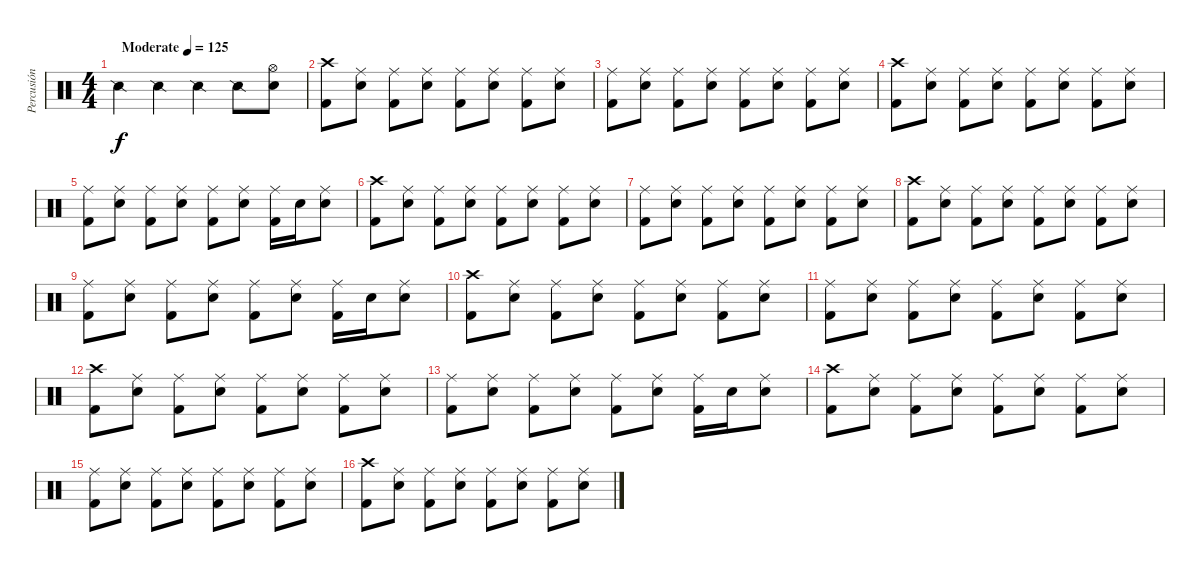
\track ("Percusión" "Percusión") {instrument percussion}
\staff {score}
\articulation defaults
\ts (4 4)
\tempo (125 "Moderate")
\clef neutral
\ks c "Snare (side stick) 2".4{dy f} "Snare (side stick) 2".4 "Snare (side stick) 2".4 "Snare (side stick) 2".8
("Hi-Hat (open)" "Electric Snare (hit)").8 |
("Crash high (hit)" "Kick (hit) 2").8 ("Ride (middle)" "Electric Snare (hit)").8 ("Ride (middle)" "Kick (hit) 2").8 ("Ride (middle)" "Electric Snare (hit)").8 ("Ride (middle)" "Kick (hit) 2").8 ("Ride (middle)" "Electric Snare (hit)").8 ("Ride (middle)" "Kick (hit) 2").8 ("Ride (middle)" "Electric Snare (hit)").8 |
("Ride (middle)" "Kick (hit) 2").8 ("Ride (middle)" "Electric Snare (hit)").8 ("Ride (middle)" "Kick (hit) 2").8 ("Ride (middle)" "Electric Snare (hit)").8 ("Ride (middle)" "Kick (hit) 2").8 ("Ride (middle)" "Electric Snare (hit)").8 ("Ride (middle)" "Kick (hit) 2").8 ("Ride (middle)" "Electric Snare (hit)").8 |
("Crash high (hit)" "Kick (hit) 2").8 ("Ride (middle)" "Electric Snare (hit)").8 ("Ride (middle)" "Kick (hit) 2").8 ("Ride (middle)" "Electric Snare (hit)").8 ("Ride (middle)" "Kick (hit) 2").8 ("Ride (middle)" "Electric Snare (hit)").8 ("Ride (middle)" "Kick (hit) 2").8 ("Ride (middle)" "Electric Snare (hit)").8 |
("Ride (middle)" "Kick (hit) 2").8 ("Ride (middle)" "Electric Snare (hit)").8 ("Ride (middle)" "Kick (hit) 2").8 ("Ride (middle)" "Electric Snare (hit)").8 ("Ride (middle)" "Kick (hit) 2").8 ("Ride (middle)" "Electric Snare (hit)").8 ("Ride (middle)" "Kick (hit) 2").16 "Electric Snare (hit)".16 ("Ride (middle)" "Electric Snare (hit)").8 |
("Crash high (hit)" "Kick (hit) 2").8 ("Ride (middle)" "Electric Snare (hit)").8 ("Ride (middle)" "Kick (hit) 2").8 ("Ride (middle)" "Electric Snare (hit)").8 ("Ride (middle)" "Kick (hit) 2").8 ("Ride (middle)" "Electric Snare (hit)").8 ("Ride (middle)" "Kick (hit) 2").8 ("Ride (middle)" "Electric Snare (hit)").8 |
("Ride (middle)" "Kick (hit) 2").8 ("Ride (middle)" "Electric Snare (hit)").8 ("Ride (middle)" "Kick (hit) 2").8 ("Ride (middle)" "Electric Snare (hit)").8 ("Ride (middle)" "Kick (hit) 2").8 ("Ride (middle)" "Electric Snare (hit)").8 ("Ride (middle)" "Kick (hit) 2").8 ("Ride (middle)" "Electric Snare (hit)").8 |
("Crash high (hit)" "Kick (hit) 2").8 ("Ride (middle)" "Electric Snare (hit)").8 ("Ride (middle)" "Kick (hit) 2").8 ("Ride (middle)" "Electric Snare (hit)").8 ("Ride (middle)" "Kick (hit) 2").8 ("Ride (middle)" "Electric Snare (hit)").8 ("Ride (middle)" "Kick (hit) 2").8 ("Ride (middle)" "Electric Snare (hit)").8 |
("Ride (middle)" "Kick (hit) 2").8 ("Ride (middle)" "Electric Snare (hit)").8 ("Ride (middle)" "Kick (hit) 2").8 ("Ride (middle)" "Electric Snare (hit)").8 ("Ride (middle)" "Kick (hit) 2").8 ("Ride (middle)" "Electric Snare (hit)").8 ("Ride (middle)" "Kick (hit) 2").16 "Electric Snare (hit)".16 ("Ride (middle)" "Electric Snare (hit)").8 |
("Crash high (hit)" "Kick (hit) 2").8 ("Ride (middle)" "Electric Snare (hit)").8 ("Ride (middle)" "Kick (hit) 2").8 ("Ride (middle)" "Electric Snare (hit)").8 ("Ride (middle)" "Kick (hit) 2").8 ("Ride (middle)" "Electric Snare (hit)").8 ("Ride (middle)" "Kick (hit) 2").8 ("Ride (middle)" "Electric Snare (hit)").8 |
("Ride (middle)" "Kick (hit) 2").8 ("Ride (middle)" "Electric Snare (hit)").8 ("Ride (middle)" "Kick (hit) 2").8 ("Ride (middle)" "Electric Snare (hit)").8 ("Ride (middle)" "Kick (hit) 2").8 ("Ride (middle)" "Electric Snare (hit)").8 ("Ride (middle)" "Kick (hit) 2").8 ("Ride (middle)" "Electric Snare (hit)").8 |
("Crash high (hit)" "Kick (hit) 2").8 ("Ride (middle)" "Electric Snare (hit)").8 ("Ride (middle)" "Kick (hit) 2").8 ("Ride (middle)" "Electric Snare (hit)").8 ("Ride (middle)" "Kick (hit) 2").8 ("Ride (middle)" "Electric Snare (hit)").8 ("Ride (middle)" "Kick (hit) 2").8 ("Ride (middle)" "Electric Snare (hit)").8 |
("Ride (middle)" "Kick (hit) 2").8 ("Ride (middle)" "Electric Snare (hit)").8 ("Ride (middle)" "Kick (hit) 2").8 ("Ride (middle)" "Electric Snare (hit)").8 ("Ride (middle)" "Kick (hit) 2").8 ("Ride (middle)" "Electric Snare (hit)").8 ("Ride (middle)" "Kick (hit) 2").16 "Electric Snare (hit)".16 ("Ride (middle)" "Electric Snare (hit)").8 |
("Crash high (hit)" "Kick (hit) 2").8 ("Ride (middle)" "Electric Snare (hit)").8 ("Ride (middle)" "Kick (hit) 2").8 ("Ride (middle)" "Electric Snare (hit)").8 ("Ride (middle)" "Kick (hit) 2").8 ("Ride (middle)" "Electric Snare (hit)").8 ("Ride (middle)" "Kick (hit) 2").8 ("Ride (middle)" "Electric Snare (hit)").8 |
("Ride (middle)" "Kick (hit) 2").8 ("Ride (middle)" "Electric Snare (hit)").8 ("Ride (middle)" "Kick (hit) 2").8 ("Ride (middle)" "Electric Snare (hit)").8 ("Ride (middle)" "Kick (hit) 2").8 ("Ride (middle)" "Electric Snare (hit)").8 ("Ride (middle)" "Kick (hit) 2").8 ("Ride (middle)" "Electric Snare (hit)").8 |
("Crash high (hit)" "Kick (hit) 2").8 ("Ride (middle)" "Electric Snare (hit)").8 ("Ride (middle)" "Kick (hit) 2").8 ("Ride (middle)" "Electric Snare (hit)").8 ("Ride (middle)" "Kick (hit) 2").8 ("Ride (middle)" "Electric Snare (hit)").8 ("Ride (middle)" "Kick (hit) 2").8 ("Ride (middle)" "Electric Snare (hit)").8
